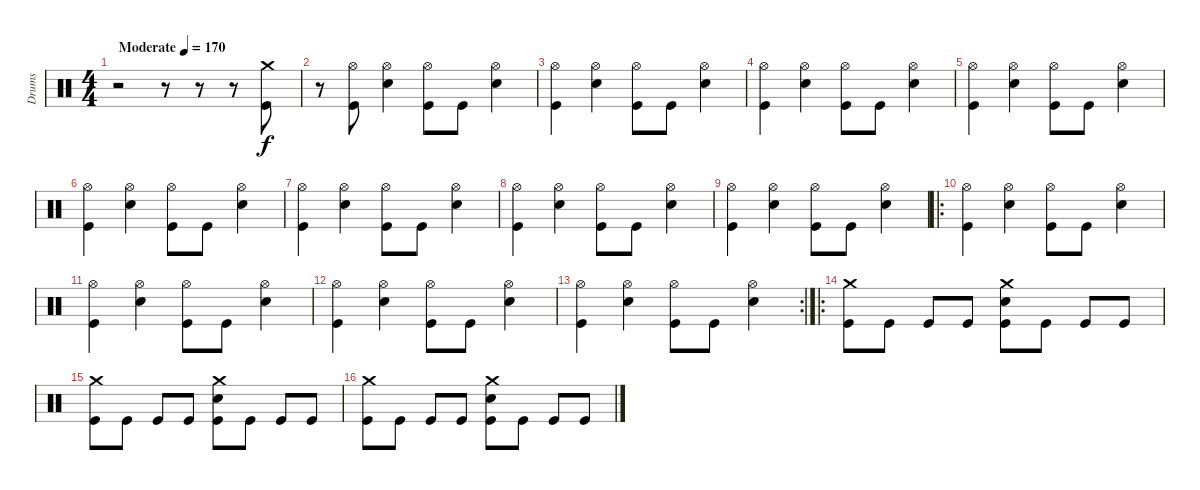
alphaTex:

\track ("Drums" "Drums") {instrument percussion}
\staff {score}
\articulation defaults
\ts (4 4)
\tempo (170 "Moderate")
\clef neutral
\ks c
r.2{dy f} r.8 r.8 r.8 ("Crash medium (hit)" "Kick (hit)").8 |
r.8 ("Hi-Hat (open)" "Kick (hit)").8 ("Hi-Hat (open)" "Snare (hit) 2").4 ("Hi-Hat (open)" "Kick (hit)").8 "Kick (hit)".8 ("Hi-Hat (open)" "Snare (hit) 2").4 |
("Hi-Hat (open)" "Kick (hit)").4 ("Hi-Hat (open)" "Snare (hit) 2").4 ("Hi-Hat (open)" "Kick (hit)").8 "Kick (hit)".8 ("Hi-Hat (open)" "Snare (hit) 2").4 |
("Hi-Hat (open)" "Kick (hit)").4 ("Hi-Hat (open)" "Snare (hit) 2").4 ("Hi-Hat (open)" "Kick (hit)").8 "Kick (hit)".8 ("Hi-Hat (open)" "Snare (hit) 2").4 |
("Hi-Hat (open)" "Kick (hit)").4 ("Hi-Hat (open)" "Snare (hit) 2").4 ("Hi-Hat (open)" "Kick (hit)").8 "Kick (hit)".8 ("Hi-Hat (open)" "Snare (hit) 2").4 |
("Hi-Hat (open)" "Kick (hit)").4 ("Hi-Hat (open)" "Snare (hit) 2").4 ("Hi-Hat (open)" "Kick (hit)").8 "Kick (hit)".8 ("Hi-Hat (open)" "Snare (hit) 2").4 |
("Hi-Hat (open)" "Kick (hit)").4 ("Hi-Hat (open)" "Snare (hit) 2").4 ("Hi-Hat (open)" "Kick (hit)").8 "Kick (hit)".8 ("Hi-Hat (open)" "Snare (hit) 2").4 |
("Hi-Hat (open)" "Kick (hit)").4 ("Hi-Hat (open)" "Snare (hit) 2").4 ("Hi-Hat (open)" "Kick (hit)").8 "Kick (hit)".8 ("Hi-Hat (open)" "Snare (hit) 2").4 |
("Hi-Hat (open)" "Kick (hit)").4 ("Hi-Hat (open)" "Snare (hit) 2").4 ("Hi-Hat (open)" "Kick (hit)").8 "Kick (hit)".8 ("Hi-Hat (open)" "Snare (hit) 2").4 |
\ro
("Hi-Hat (open)" "Kick (hit)").4 ("Hi-Hat (open)" "Snare (hit) 2").4 ("Hi-Hat (open)" "Kick (hit)").8 "Kick (hit)".8 ("Hi-Hat (open)" "Snare (hit) 2").4 |
("Hi-Hat (open)" "Kick (hit)").4 ("Hi-Hat (open)" "Snare (hit) 2").4 ("Hi-Hat (open)" "Kick (hit)").8 "Kick (hit)".8 ("Hi-Hat (open)" "Snare (hit) 2").4 |
("Hi-Hat (open)" "Kick (hit)").4 ("Hi-Hat (open)" "Snare (hit) 2").4 ("Hi-Hat (open)" "Kick (hit)").8 "Kick (hit)".8 ("Hi-Hat (open)" "Snare (hit) 2").4 |
\rc 2
("Hi-Hat (open)" "Kick (hit)").4 ("Hi-Hat (open)" "Snare (hit) 2").4 ("Hi-Hat (open)" "Kick (hit)").8 "Kick (hit)".8 ("Hi-Hat (open)" "Snare (hit) 2").4 |
\ro
("Crash medium (hit)" "Kick (hit)").8 "Kick (hit)".8 "Kick (hit)".8 "Kick (hit)".8 ("Crash medium (hit)" "Snare (hit) 2" "Kick (hit)").8 "Kick (hit)".8 "Kick (hit)".8 "Kick (hit)".8 |
("Crash medium (hit)" "Kick (hit)").8 "Kick (hit)".8 "Kick (hit)".8 "Kick (hit)".8 ("Crash medium (hit)" "Snare (hit) 2" "Kick (hit)").8 "Kick (hit)".8 "Kick (hit)".8 "Kick (hit)".8 |
("Crash medium (hit)" "Kick (hit)").8 "Kick (hit)".8 "Kick (hit)".8 "Kick (hit)".8 ("Crash medium (hit)" "Snare (hit) 2" "Kick (hit)").8 "Kick (hit)".8 "Kick (hit)".8 "Kick (hit)".8
